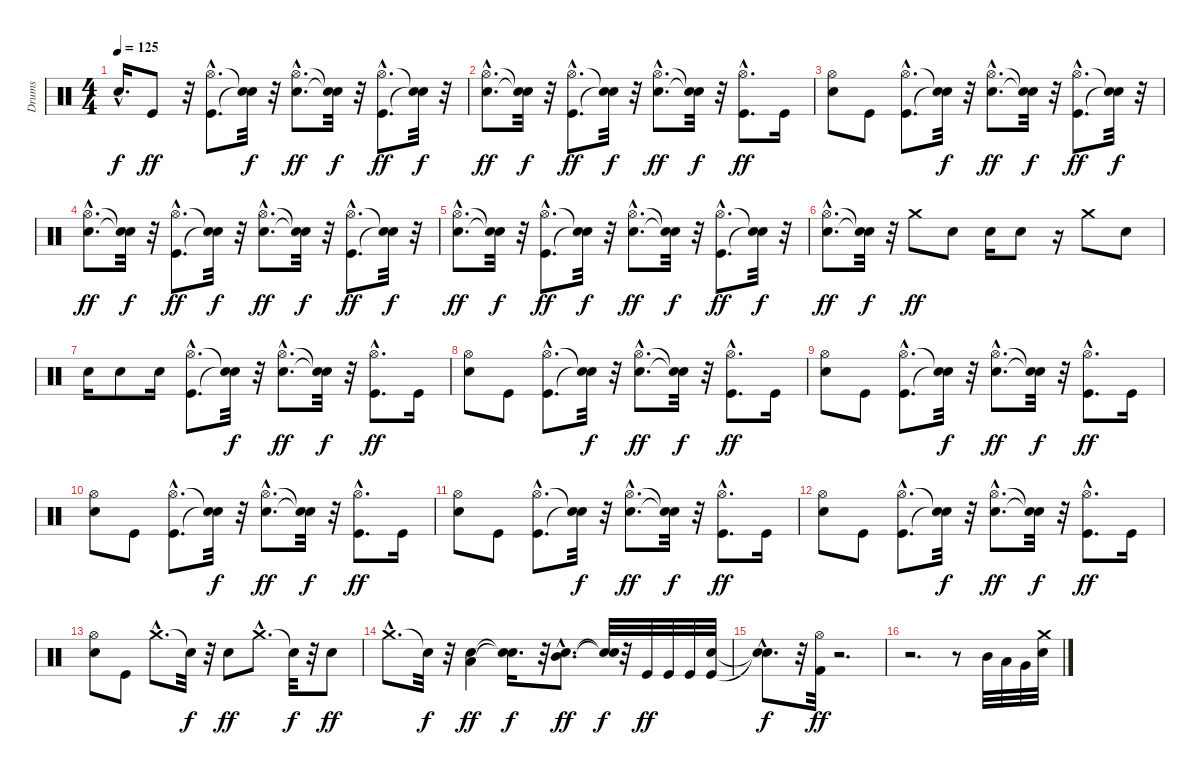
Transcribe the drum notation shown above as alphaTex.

\track ("Drums" "Drums") {instrument percussion}
\staff {score}
\articulation defaults
\ts (4 4)
\tempo 125
\clef neutral
\ks c "Snare (hit)"{hac t}.16{d dy f} "Kick (hit)".8{dy ff}
r.32 ("Kick (hit)"{hac} "Hi-Hat (open)"{hac}).8{d} ("Snare (hit)"{t} "Snare (hit)"{t}).32{dy f} r.32 ("Electric Snare (hit)"{hac} "Hi-Hat (open)"{hac}).8{d dy ff} ("Snare (hit)"{t} "Snare (hit)"{t}).32{dy f} r.32 ("Kick (hit)"{hac} "Hi-Hat (open)"{hac}).8{d dy ff} ("Snare (hit)"{t} "Snare (hit)"{t}).32{dy f} r.32 |
("Electric Snare (hit)"{hac} "Hi-Hat (open)"{hac}).8{d dy ff} ("Snare (hit)"{t} "Snare (hit)"{t}).32{dy f} r.32 ("Kick (hit)"{hac} "Hi-Hat (open)"{hac}).8{d dy ff} ("Snare (hit)"{t} "Snare (hit)"{t}).32{dy f} r.32 ("Electric Snare (hit)"{hac} "Hi-Hat (open)"{hac}).8{d dy ff} ("Snare (hit)"{t} "Snare (hit)"{t}).32{dy f} r.32 ("Kick (hit)"{hac} "Hi-Hat (open)"{hac}).8{d dy ff} "Kick (hit)".16 |
("Electric Snare (hit)" "Hi-Hat (open)").8 "Kick (hit)".8 ("Kick (hit)"{hac} "Hi-Hat (open)"{hac}).8{d} ("Snare (hit)"{t} "Snare (hit)"{t}).32{dy f} r.32 ("Electric Snare (hit)"{hac} "Hi-Hat (open)"{hac}).8{d dy ff} ("Snare (hit)"{t} "Snare (hit)"{t}).32{dy f} r.32 ("Kick (hit)"{hac} "Hi-Hat (open)"{hac}).8{d dy ff} ("Snare (hit)"{t} "Snare (hit)"{t}).32{dy f} r.32 |
("Electric Snare (hit)"{hac} "Hi-Hat (open)"{hac}).8{d dy ff} ("Snare (hit)"{t} "Snare (hit)"{t}).32{dy f} r.32 ("Kick (hit)"{hac} "Hi-Hat (open)"{hac}).8{d dy ff} ("Snare (hit)"{t} "Snare (hit)"{t}).32{dy f} r.32 ("Electric Snare (hit)"{hac} "Hi-Hat (open)"{hac}).8{d dy ff} ("Snare (hit)"{t} "Snare (hit)"{t}).32{dy f} r.32 ("Kick (hit)"{hac} "Hi-Hat (open)"{hac}).8{d dy ff} ("Snare (hit)"{t} "Snare (hit)"{t}).32{dy f} r.32 |
("Electric Snare (hit)"{hac} "Hi-Hat (open)"{hac}).8{d dy ff} ("Snare (hit)"{t} "Snare (hit)"{t}).32{dy f} r.32 ("Kick (hit)"{hac} "Hi-Hat (open)"{hac}).8{d dy ff} ("Snare (hit)"{t} "Snare (hit)"{t}).32{dy f} r.32 ("Electric Snare (hit)"{hac} "Hi-Hat (open)"{hac}).8{d dy ff} ("Snare (hit)"{t} "Snare (hit)"{t}).32{dy f} r.32 ("Kick (hit)"{hac} "Hi-Hat (open)"{hac}).8{d dy ff} ("Snare (hit)"{t} "Snare (hit)"{t}).32{dy f} r.32 |
("Electric Snare (hit)"{hac} "Hi-Hat (open)"{hac}).8{d dy ff} ("Snare (hit)"{t} "Snare (hit)"{t}).32{dy f} r.32 "Crash medium (hit)".8{dy ff} "Electric Snare (hit)".8 "Electric Snare (hit)".16 "Electric Snare (hit)".8 r.16 "Crash medium (hit)".8 "Electric Snare (hit)".8 |
"Electric Snare (hit)".16 "Electric Snare (hit)".8 "Electric Snare (hit)".16 ("Kick (hit)"{hac} "Hi-Hat (open)"{hac}).8{d} ("Snare (hit)"{t} "Snare (hit)"{t}).32{dy f} r.32 ("Electric Snare (hit)"{hac} "Hi-Hat (open)"{hac}).8{d dy ff} ("Snare (hit)"{t} "Snare (hit)"{t}).32{dy f} r.32 ("Kick (hit)"{hac} "Hi-Hat (open)"{hac}).8{d dy ff} "Kick (hit)".16 |
("Electric Snare (hit)" "Hi-Hat (open)").8 "Kick (hit)".8 ("Kick (hit)"{hac} "Hi-Hat (open)"{hac}).8{d} ("Snare (hit)"{t} "Snare (hit)"{t}).32{dy f} r.32 ("Electric Snare (hit)"{hac} "Hi-Hat (open)"{hac}).8{d dy ff} ("Snare (hit)"{t} "Snare (hit)"{t}).32{dy f} r.32 ("Kick (hit)"{hac} "Hi-Hat (open)"{hac}).8{d dy ff} "Kick (hit)".16 |
("Electric Snare (hit)" "Hi-Hat (open)").8 "Kick (hit)".8 ("Kick (hit)"{hac} "Hi-Hat (open)"{hac}).8{d} ("Snare (hit)"{t} "Snare (hit)"{t}).32{dy f} r.32 ("Electric Snare (hit)"{hac} "Hi-Hat (open)"{hac}).8{d dy ff} ("Snare (hit)"{t} "Snare (hit)"{t}).32{dy f} r.32 ("Kick (hit)"{hac} "Hi-Hat (open)"{hac}).8{d dy ff} "Kick (hit)".16 |
("Electric Snare (hit)" "Hi-Hat (open)").8 "Kick (hit)".8 ("Kick (hit)"{hac} "Hi-Hat (open)"{hac}).8{d} ("Snare (hit)"{t} "Snare (hit)"{t}).32{dy f} r.32 ("Electric Snare (hit)"{hac} "Hi-Hat (open)"{hac}).8{d dy ff} ("Snare (hit)"{t} "Snare (hit)"{t}).32{dy f} r.32 ("Kick (hit)"{hac} "Hi-Hat (open)"{hac}).8{d dy ff} "Kick (hit)".16 |
("Electric Snare (hit)" "Hi-Hat (open)").8 "Kick (hit)".8 ("Kick (hit)"{hac} "Hi-Hat (open)"{hac}).8{d} ("Snare (hit)"{t} "Snare (hit)"{t}).32{dy f} r.32 ("Electric Snare (hit)"{hac} "Hi-Hat (open)"{hac}).8{d dy ff} ("Snare (hit)"{t} "Snare (hit)"{t}).32{dy f} r.32 ("Kick (hit)"{hac} "Hi-Hat (open)"{hac}).8{d dy ff} "Kick (hit)".16 |
("Electric Snare (hit)" "Hi-Hat (open)").8 "Kick (hit)".8 ("Kick (hit)"{hac} "Hi-Hat (open)"{hac}).8{d} ("Snare (hit)"{t} "Snare (hit)"{t}).32{dy f} r.32 ("Electric Snare (hit)"{hac} "Hi-Hat (open)"{hac}).8{d dy ff} ("Snare (hit)"{t} "Snare (hit)"{t}).32{dy f} r.32 ("Kick (hit)"{hac} "Hi-Hat (open)"{hac}).8{d dy ff} "Kick (hit)".16 |
("Electric Snare (hit)" "Hi-Hat (open)").8 "Kick (hit)".8 "Crash medium (hit)"{hac}.8{d} "Snare (hit)"{t}.32{dy f} r.32 "Snare (hit) 2".8{dy ff} "Crash medium (hit)"{hac}.8{d} "Snare (hit)"{t}.32{dy f} r.32 "Snare (hit) 2".8{dy ff} |
"Crash medium (hit)"{hac}.8{d} "Snare (hit)"{t}.32{dy f} r.32 ("Electric Snare (hit)" "Low Tom (hit)").4{dy ff} ("Snare (hit)"{t} "Snare (hit)"{t}).16{d dy f} r.32 ("Electric Snare (hit)"{hac} "Mid Tom (hit)"{hac}).8{d dy ff} ("Snare (hit)"{t} "Snare (hit)"{t}).32{dy f} r.32 "Kick (hit)".32{dy ff} "Kick (hit)".32 "Kick (hit)".32 ("Kick (hit)" "Electric Snare (hit)").32 |
("Snare (hit)"{hac t} "Snare (hit)"{hac t}).8{d dy f} r.32 ("Kick (hit) 2" "Hi-Hat (open)").32{dy ff} r.2{d} |
r.2{d} r.8 "Mid Tom (hit)".32 "Low Tom (hit)".32 "Very Low Tom (hit)".32 ("Electric Snare (hit)" "Crash medium (hit)").32
